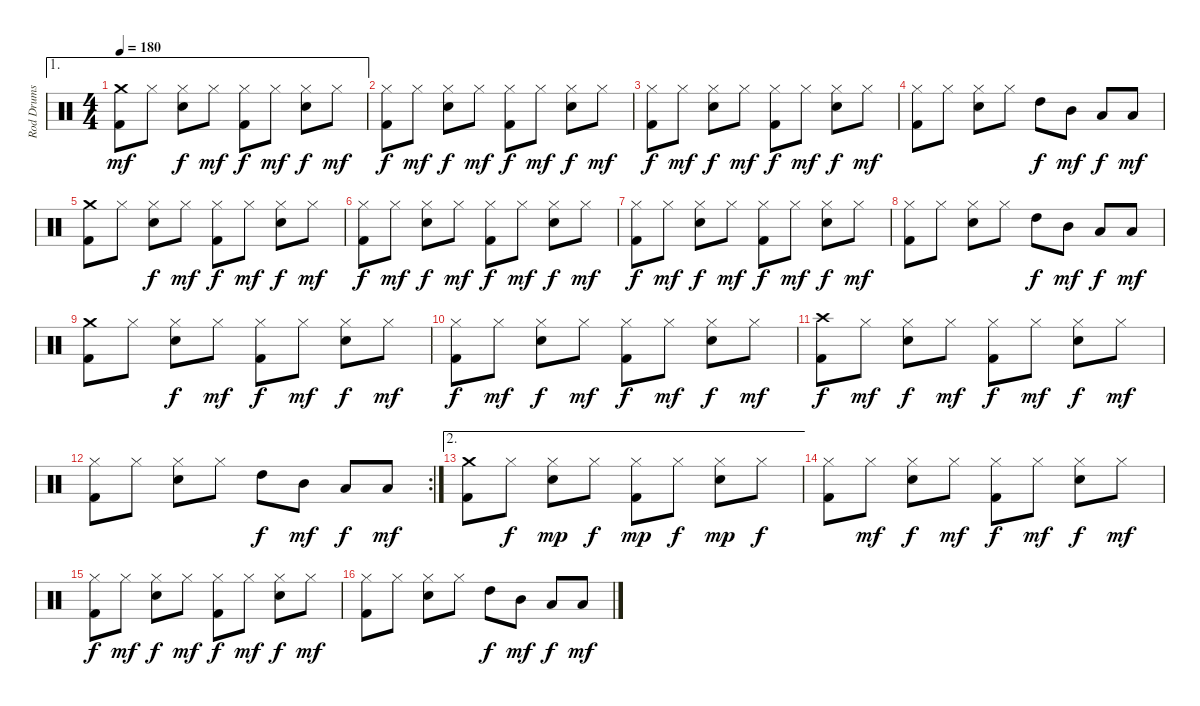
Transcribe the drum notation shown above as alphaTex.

\track ("Rod Drums" "Rod Drums") {instrument percussion}
\staff {score}
\articulation defaults
\ae 1
\ts (4 4)
\tempo 180
\clef neutral
\ks c
("Crash medium (hit)" "Kick (hit) 2").8{dy mf} "Hi-Hat (closed)".8 ("Hi-Hat (closed)" "Snare (hit) 2").8{dy f} "Hi-Hat (closed)".8{dy mf} ("Hi-Hat (closed)" "Kick (hit) 2").8{dy f} "Hi-Hat (closed)".8{dy mf} ("Hi-Hat (closed)" "Snare (hit) 2").8{dy f} "Hi-Hat (closed)".8{dy mf} |
("Hi-Hat (closed)" "Kick (hit) 2").8{dy f} "Hi-Hat (closed)".8{dy mf} ("Hi-Hat (closed)" "Snare (hit) 2").8{dy f} "Hi-Hat (closed)".8{dy mf} ("Hi-Hat (closed)" "Kick (hit) 2").8{dy f} "Hi-Hat (closed)".8{dy mf} ("Hi-Hat (closed)" "Snare (hit) 2").8{dy f} "Hi-Hat (closed)".8{dy mf} |
("Hi-Hat (closed)" "Kick (hit) 2").8{dy f} "Hi-Hat (closed)".8{dy mf} ("Hi-Hat (closed)" "Snare (hit) 2").8{dy f} "Hi-Hat (closed)".8{dy mf} ("Hi-Hat (closed)" "Kick (hit) 2").8{dy f} "Hi-Hat (closed)".8{dy mf} ("Hi-Hat (closed)" "Snare (hit) 2").8{dy f} "Hi-Hat (closed)".8{dy mf} |
("Hi-Hat (closed)" "Kick (hit) 2").8 "Hi-Hat (closed)".8 ("Hi-Hat (closed)" "Snare (hit) 2").8 "Hi-Hat (closed)".8 "High Tom (hit)".8{dy f} "Mid Tom (hit)".8{dy mf} "Low Tom (hit)".8{dy f} "Low Tom (hit)".8{dy mf} |
("Crash medium (hit)" "Kick (hit) 2").8 "Hi-Hat (closed)".8 ("Hi-Hat (closed)" "Snare (hit) 2").8{dy f} "Hi-Hat (closed)".8{dy mf} ("Hi-Hat (closed)" "Kick (hit) 2").8{dy f} "Hi-Hat (closed)".8{dy mf} ("Hi-Hat (closed)" "Snare (hit) 2").8{dy f} "Hi-Hat (closed)".8{dy mf} |
("Hi-Hat (closed)" "Kick (hit) 2").8{dy f} "Hi-Hat (closed)".8{dy mf} ("Hi-Hat (closed)" "Snare (hit) 2").8{dy f} "Hi-Hat (closed)".8{dy mf} ("Hi-Hat (closed)" "Kick (hit) 2").8{dy f} "Hi-Hat (closed)".8{dy mf} ("Hi-Hat (closed)" "Snare (hit) 2").8{dy f} "Hi-Hat (closed)".8{dy mf} |
("Hi-Hat (closed)" "Kick (hit) 2").8{dy f} "Hi-Hat (closed)".8{dy mf} ("Hi-Hat (closed)" "Snare (hit) 2").8{dy f} "Hi-Hat (closed)".8{dy mf} ("Hi-Hat (closed)" "Kick (hit) 2").8{dy f} "Hi-Hat (closed)".8{dy mf} ("Hi-Hat (closed)" "Snare (hit) 2").8{dy f} "Hi-Hat (closed)".8{dy mf} |
("Hi-Hat (closed)" "Kick (hit) 2").8 "Hi-Hat (closed)".8 ("Hi-Hat (closed)" "Snare (hit) 2").8 "Hi-Hat (closed)".8 "High Tom (hit)".8{dy f} "Mid Tom (hit)".8{dy mf} "Low Tom (hit)".8{dy f} "Low Tom (hit)".8{dy mf} |
("Crash medium (hit)" "Kick (hit) 2").8 "Hi-Hat (closed)".8 ("Hi-Hat (closed)" "Snare (hit) 2").8{dy f} "Hi-Hat (closed)".8{dy mf} ("Hi-Hat (closed)" "Kick (hit) 2").8{dy f} "Hi-Hat (closed)".8{dy mf} ("Hi-Hat (closed)" "Snare (hit) 2").8{dy f} "Hi-Hat (closed)".8{dy mf} |
("Hi-Hat (closed)" "Kick (hit) 2").8{dy f} "Hi-Hat (closed)".8{dy mf} ("Hi-Hat (closed)" "Snare (hit) 2").8{dy f} "Hi-Hat (closed)".8{dy mf} ("Hi-Hat (closed)" "Kick (hit) 2").8{dy f} "Hi-Hat (closed)".8{dy mf} ("Hi-Hat (closed)" "Snare (hit) 2").8{dy f} "Hi-Hat (closed)".8{dy mf} |
("Crash high (hit)" "Kick (hit) 2").8{dy f} "Hi-Hat (closed)".8{dy mf} ("Hi-Hat (closed)" "Snare (hit) 2").8{dy f} "Hi-Hat (closed)".8{dy mf} ("Hi-Hat (closed)" "Kick (hit) 2").8{dy f} "Hi-Hat (closed)".8{dy mf} ("Hi-Hat (closed)" "Snare (hit) 2").8{dy f} "Hi-Hat (closed)".8{dy mf} |
\rc 2
("Hi-Hat (closed)" "Kick (hit) 2").8 "Hi-Hat (closed)".8 ("Hi-Hat (closed)" "Snare (hit) 2").8 "Hi-Hat (closed)".8 "High Tom (hit)".8{dy f} "Mid Tom (hit)".8{dy mf} "Low Tom (hit)".8{dy f} "Low Tom (hit)".8{dy mf} |
\ae 2
("Crash medium (hit)" "Kick (hit) 2").8 "Hi-Hat (closed)".8{dy f} ("Hi-Hat (closed)" "Snare (hit) 2").8{dy mp} "Hi-Hat (closed)".8{dy f} ("Hi-Hat (closed)" "Kick (hit) 2").8{dy mp} "Hi-Hat (closed)".8{dy f} ("Hi-Hat (closed)" "Snare (hit) 2").8{dy mp} "Hi-Hat (closed)".8{dy f} |
("Hi-Hat (closed)" "Kick (hit) 2").8 "Hi-Hat (closed)".8{dy mf} ("Hi-Hat (closed)" "Snare (hit) 2").8{dy f} "Hi-Hat (closed)".8{dy mf} ("Hi-Hat (closed)" "Kick (hit) 2").8{dy f} "Hi-Hat (closed)".8{dy mf} ("Hi-Hat (closed)" "Snare (hit) 2").8{dy f} "Hi-Hat (closed)".8{dy mf} |
("Hi-Hat (closed)" "Kick (hit) 2").8{dy f} "Hi-Hat (closed)".8{dy mf} ("Hi-Hat (closed)" "Snare (hit) 2").8{dy f} "Hi-Hat (closed)".8{dy mf} ("Hi-Hat (closed)" "Kick (hit) 2").8{dy f} "Hi-Hat (closed)".8{dy mf} ("Hi-Hat (closed)" "Snare (hit) 2").8{dy f} "Hi-Hat (closed)".8{dy mf} |
("Hi-Hat (closed)" "Kick (hit) 2").8 "Hi-Hat (closed)".8 ("Hi-Hat (closed)" "Snare (hit) 2").8 "Hi-Hat (closed)".8 "High Tom (hit)".8{dy f} "Mid Tom (hit)".8{dy mf} "Low Tom (hit)".8{dy f} "Low Tom (hit)".8{dy mf}
